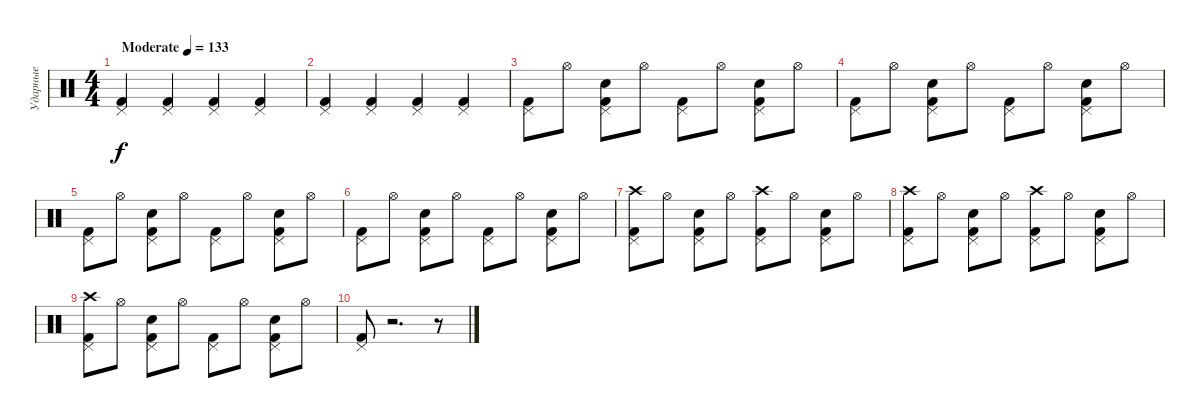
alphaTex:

\track ("Ударные" "Ударные") {instrument percussion}
\staff {score}
\articulation defaults
\ts (4 4)
\tempo (133 "Moderate")
\clef neutral
\ks c
("Kick (hit) 2" "Pedal Hi-Hat (hit)").4{dy f} ("Kick (hit) 2" "Pedal Hi-Hat (hit)").4 ("Kick (hit) 2" "Pedal Hi-Hat (hit)").4 ("Kick (hit) 2" "Pedal Hi-Hat (hit)").4 |
("Kick (hit) 2" "Pedal Hi-Hat (hit)").4 ("Kick (hit) 2" "Pedal Hi-Hat (hit)").4 ("Kick (hit) 2" "Pedal Hi-Hat (hit)").4 ("Kick (hit) 2" "Pedal Hi-Hat (hit)").4 |
("Kick (hit) 2" "Pedal Hi-Hat (hit)").8 "Hi-Hat (open)".8 ("Kick (hit) 2" "Pedal Hi-Hat (hit)" "Hand Clap (hit)").8 "Hi-Hat (open)".8 ("Kick (hit) 2" "Pedal Hi-Hat (hit)").8 "Hi-Hat (open)".8 ("Kick (hit) 2" "Pedal Hi-Hat (hit)" "Hand Clap (hit)").8 "Hi-Hat (open)".8 |
("Kick (hit) 2" "Pedal Hi-Hat (hit)").8 "Hi-Hat (open)".8 ("Kick (hit) 2" "Pedal Hi-Hat (hit)" "Hand Clap (hit)").8 "Hi-Hat (open)".8 ("Kick (hit) 2" "Pedal Hi-Hat (hit)").8 "Hi-Hat (open)".8 ("Kick (hit) 2" "Pedal Hi-Hat (hit)" "Hand Clap (hit)").8 "Hi-Hat (open)".8 |
("Kick (hit) 2" "Pedal Hi-Hat (hit)").8 "Hi-Hat (open)".8 ("Kick (hit) 2" "Pedal Hi-Hat (hit)" "Hand Clap (hit)").8 "Hi-Hat (open)".8 ("Kick (hit) 2" "Pedal Hi-Hat (hit)").8 "Hi-Hat (open)".8 ("Kick (hit) 2" "Pedal Hi-Hat (hit)" "Hand Clap (hit)").8 "Hi-Hat (open)".8 |
("Kick (hit) 2" "Pedal Hi-Hat (hit)").8 "Hi-Hat (open)".8 ("Kick (hit) 2" "Pedal Hi-Hat (hit)" "Hand Clap (hit)").8 "Hi-Hat (open)".8 ("Kick (hit) 2" "Pedal Hi-Hat (hit)").8 "Hi-Hat (open)".8 ("Kick (hit) 2" "Pedal Hi-Hat (hit)" "Hand Clap (hit)").8 "Hi-Hat (open)".8 |
("Kick (hit) 2" "Pedal Hi-Hat (hit)" "Crash high (hit)").8 "Hi-Hat (open)".8 ("Kick (hit) 2" "Pedal Hi-Hat (hit)" "Hand Clap (hit)").8 "Hi-Hat (open)".8 ("Kick (hit) 2" "Pedal Hi-Hat (hit)" "Crash high (hit)").8 "Hi-Hat (open)".8 ("Kick (hit) 2" "Pedal Hi-Hat (hit)" "Hand Clap (hit)").8 "Hi-Hat (open)".8 |
("Kick (hit) 2" "Pedal Hi-Hat (hit)" "Crash high (hit)").8 "Hi-Hat (open)".8 ("Kick (hit) 2" "Pedal Hi-Hat (hit)" "Hand Clap (hit)").8 "Hi-Hat (open)".8 ("Kick (hit) 2" "Pedal Hi-Hat (hit)" "Crash high (hit)").8 "Hi-Hat (open)".8 ("Kick (hit) 2" "Pedal Hi-Hat (hit)" "Hand Clap (hit)").8 "Hi-Hat (open)".8 |
("Kick (hit) 2" "Pedal Hi-Hat (hit)" "Crash high (hit)").8 "Hi-Hat (open)".8 ("Kick (hit) 2" "Pedal Hi-Hat (hit)" "Hand Clap (hit)").8 "Hi-Hat (open)".8 ("Kick (hit) 2" "Pedal Hi-Hat (hit)").8 "Hi-Hat (open)".8 ("Kick (hit) 2" "Pedal Hi-Hat (hit)" "Hand Clap (hit)").8 "Hi-Hat (open)".8 |
("Kick (hit) 2" "Pedal Hi-Hat (hit)").8 r.2{d} r.8
